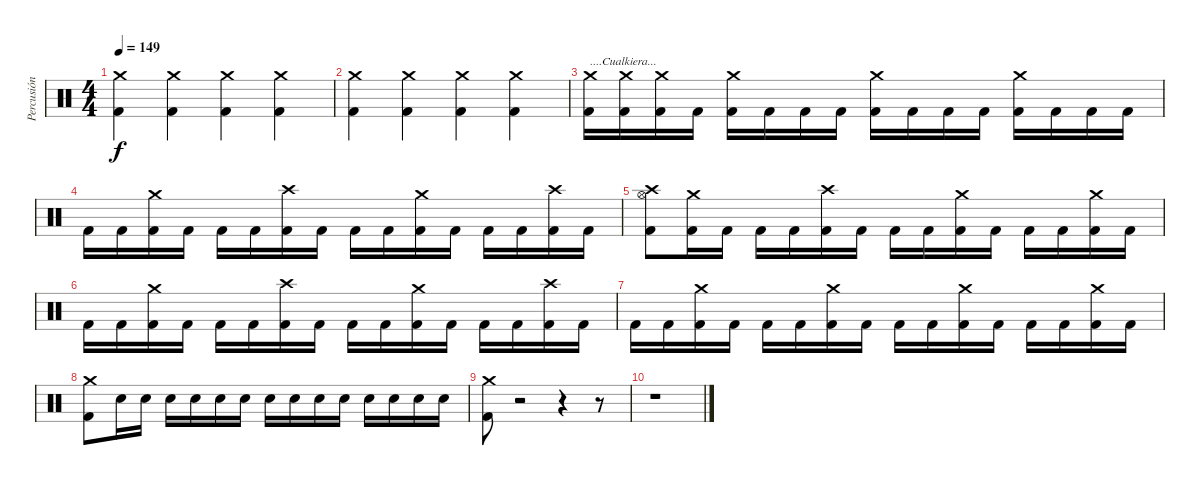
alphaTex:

\track ("Percusión" "Percusión") {instrument percussion}
\staff {score}
\articulation defaults
\ts (4 4)
\tempo 149
\clef neutral
\ks c
("Crash medium (hit)" "Kick (hit) 2").4{dy f} ("Crash medium (hit)" "Kick (hit) 2").4 ("Crash medium (hit)" "Kick (hit) 2").4 ("Crash medium (hit)" "Kick (hit) 2").4 |
("Crash medium (hit)" "Kick (hit) 2").4 ("Crash medium (hit)" "Kick (hit) 2").4 ("Crash medium (hit)" "Kick (hit) 2").4 ("Crash medium (hit)" "Kick (hit) 2").4 |
("Crash medium (hit)" "Kick (hit) 2").16{txt "....Cualkiera..."} ("Crash medium (hit)" "Kick (hit) 2").16 ("Crash medium (hit)" "Kick (hit) 2").16 "Kick (hit) 2".16 ("Crash medium (hit)" "Kick (hit) 2").16 "Kick (hit) 2".16 "Kick (hit) 2".16 "Kick (hit) 2".16 ("Crash medium (hit)" "Kick (hit) 2").16 "Kick (hit) 2".16 "Kick (hit) 2".16 "Kick (hit) 2".16 ("Crash medium (hit)" "Kick (hit) 2").16 "Kick (hit) 2".16 "Kick (hit) 2".16 "Kick (hit) 2".16 |
"Kick (hit) 2".16 "Kick (hit) 2".16 ("Crash medium (hit)" "Kick (hit) 2").16 "Kick (hit) 2".16 "Kick (hit) 2".16 "Kick (hit) 2".16 ("Crash high (hit)" "Kick (hit) 2").16 "Kick (hit) 2".16 "Kick (hit) 2".16 "Kick (hit) 2".16 ("Crash medium (hit)" "Kick (hit) 2").16 "Kick (hit) 2".16 "Kick (hit) 2".16 "Kick (hit) 2".16 ("Crash high (hit)" "Kick (hit) 2").16 "Kick (hit) 2".16 |
("Crash high (hit)" "Hi-Hat (open)" "Kick (hit) 2").8 ("Crash medium (hit)" "Kick (hit) 2").16 "Kick (hit) 2".16 "Kick (hit) 2".16 "Kick (hit) 2".16 ("Crash high (hit)" "Kick (hit) 2").16 "Kick (hit) 2".16 "Kick (hit) 2".16 "Kick (hit) 2".16 ("Crash medium (hit)" "Kick (hit) 2").16 "Kick (hit) 2".16 "Kick (hit) 2".16 "Kick (hit) 2".16 ("Crash medium (hit)" "Kick (hit) 2").16 "Kick (hit) 2".16 |
"Kick (hit) 2".16 "Kick (hit) 2".16 ("Crash medium (hit)" "Kick (hit) 2").16 "Kick (hit) 2".16 "Kick (hit) 2".16 "Kick (hit) 2".16 ("Crash high (hit)" "Kick (hit) 2").16 "Kick (hit) 2".16 "Kick (hit) 2".16 "Kick (hit) 2".16 ("Crash medium (hit)" "Kick (hit) 2").16 "Kick (hit) 2".16 "Kick (hit) 2".16 "Kick (hit) 2".16 ("Crash high (hit)" "Kick (hit) 2").16 "Kick (hit) 2".16 |
"Kick (hit) 2".16 "Kick (hit) 2".16 ("Crash medium (hit)" "Kick (hit) 2").16 "Kick (hit) 2".16 "Kick (hit) 2".16 "Kick (hit) 2".16 ("Crash medium (hit)" "Kick (hit) 2").16 "Kick (hit) 2".16 "Kick (hit) 2".16 "Kick (hit) 2".16 ("Crash medium (hit)" "Kick (hit) 2").16 "Kick (hit) 2".16 "Kick (hit) 2".16 "Kick (hit) 2".16 ("Crash medium (hit)" "Kick (hit) 2").16 "Kick (hit) 2".16 |
("Crash medium (hit)" "Kick (hit) 2").8 "Snare (hit) 2".16 "Snare (hit) 2".16 "Snare (hit) 2".16 "Snare (hit) 2".16 "Snare (hit) 2".16 "Snare (hit) 2".16 "Snare (hit) 2".16 "Snare (hit) 2".16 "Snare (hit) 2".16 "Snare (hit) 2".16 "Snare (hit) 2".16 "Snare (hit) 2".16 "Snare (hit) 2".16 "Snare (hit) 2".16 |
("Crash medium (hit)" "Kick (hit) 2").8 r.2 r.4 r.8 |
r.1
